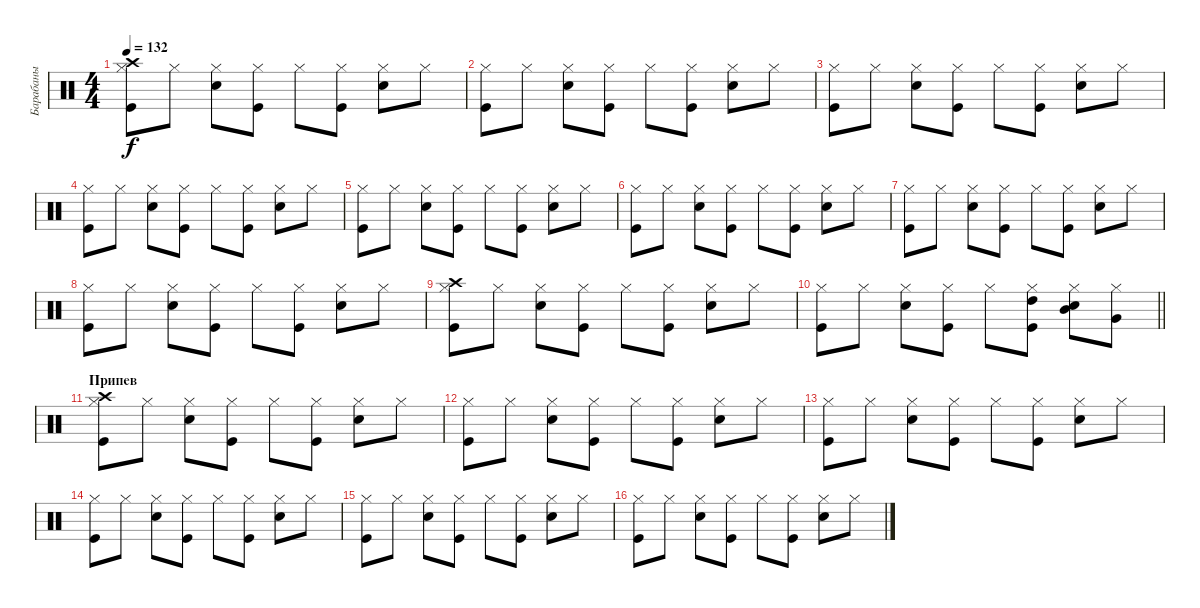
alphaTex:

\track ("Барабаны" "Барабаны") {instrument percussion}
\staff {score}
\articulation defaults
\ts (4 4)
\tempo 132
\clef neutral
\ks c
("Kick (hit)" "Hi-Hat (closed)" "Crash high (hit)").8{dy f} "Hi-Hat (closed)".8 ("Snare (hit) 2" "Hi-Hat (closed)").8 ("Kick (hit)" "Hi-Hat (closed)").8 "Hi-Hat (closed)".8 ("Kick (hit)" "Hi-Hat (closed)").8 ("Snare (hit) 2" "Hi-Hat (closed)").8 "Hi-Hat (closed)".8 |
("Kick (hit)" "Hi-Hat (closed)").8 "Hi-Hat (closed)".8 ("Snare (hit) 2" "Hi-Hat (closed)").8 ("Kick (hit)" "Hi-Hat (closed)").8 "Hi-Hat (closed)".8 ("Kick (hit)" "Hi-Hat (closed)").8 ("Snare (hit) 2" "Hi-Hat (closed)").8 "Hi-Hat (closed)".8 |
("Kick (hit)" "Hi-Hat (closed)").8 "Hi-Hat (closed)".8 ("Snare (hit) 2" "Hi-Hat (closed)").8 ("Kick (hit)" "Hi-Hat (closed)").8 "Hi-Hat (closed)".8 ("Kick (hit)" "Hi-Hat (closed)").8 ("Snare (hit) 2" "Hi-Hat (closed)").8 "Hi-Hat (closed)".8 |
("Kick (hit)" "Hi-Hat (closed)").8 "Hi-Hat (closed)".8 ("Snare (hit) 2" "Hi-Hat (closed)").8 ("Kick (hit)" "Hi-Hat (closed)").8 "Hi-Hat (closed)".8 ("Kick (hit)" "Hi-Hat (closed)").8 ("Snare (hit) 2" "Hi-Hat (closed)").8 "Hi-Hat (closed)".8 |
("Kick (hit)" "Hi-Hat (closed)").8 "Hi-Hat (closed)".8 ("Snare (hit) 2" "Hi-Hat (closed)").8 ("Kick (hit)" "Hi-Hat (closed)").8 "Hi-Hat (closed)".8 ("Kick (hit)" "Hi-Hat (closed)").8 ("Snare (hit) 2" "Hi-Hat (closed)").8 "Hi-Hat (closed)".8 |
("Kick (hit)" "Hi-Hat (closed)").8 "Hi-Hat (closed)".8 ("Snare (hit) 2" "Hi-Hat (closed)").8 ("Kick (hit)" "Hi-Hat (closed)").8 "Hi-Hat (closed)".8 ("Kick (hit)" "Hi-Hat (closed)").8 ("Snare (hit) 2" "Hi-Hat (closed)").8 "Hi-Hat (closed)".8 |
("Kick (hit)" "Hi-Hat (closed)").8 "Hi-Hat (closed)".8 ("Snare (hit) 2" "Hi-Hat (closed)").8 ("Kick (hit)" "Hi-Hat (closed)").8 "Hi-Hat (closed)".8 ("Kick (hit)" "Hi-Hat (closed)").8 ("Snare (hit) 2" "Hi-Hat (closed)").8 "Hi-Hat (closed)".8 |
("Kick (hit)" "Hi-Hat (closed)").8 "Hi-Hat (closed)".8 ("Snare (hit) 2" "Hi-Hat (closed)").8 ("Kick (hit)" "Hi-Hat (closed)").8 "Hi-Hat (closed)".8 ("Kick (hit)" "Hi-Hat (closed)").8 ("Snare (hit) 2" "Hi-Hat (closed)").8 "Hi-Hat (closed)".8 |
("Kick (hit)" "Hi-Hat (closed)" "Crash high (hit)").8 "Hi-Hat (closed)".8 ("Snare (hit) 2" "Hi-Hat (closed)").8 ("Kick (hit)" "Hi-Hat (closed)").8 "Hi-Hat (closed)".8 ("Kick (hit)" "Hi-Hat (closed)").8 ("Snare (hit) 2" "Hi-Hat (closed)").8 "Hi-Hat (closed)".8 |
\barLineRight lightlight
("Kick (hit)" "Hi-Hat (closed)").8 "Hi-Hat (closed)".8 ("Snare (hit) 2" "Hi-Hat (closed)").8 ("Kick (hit)" "Hi-Hat (closed)").8 "Hi-Hat (closed)".8 ("Kick (hit)" "Hi-Hat (closed)" "High Tom (hit)").8 ("Snare (hit) 2" "Hi-Hat (closed)" "Mid Tom (hit)").8 ("Hi-Hat (closed)" "Very Low Tom (hit)").8 |
\section ("" "Припев")
("Kick (hit)" "Hi-Hat (closed)" "Crash high (hit)").8 "Hi-Hat (closed)".8 ("Snare (hit) 2" "Hi-Hat (closed)").8 ("Kick (hit)" "Hi-Hat (closed)").8 "Hi-Hat (closed)".8 ("Kick (hit)" "Hi-Hat (closed)").8 ("Snare (hit) 2" "Hi-Hat (closed)").8 "Hi-Hat (closed)".8 |
("Kick (hit)" "Hi-Hat (closed)").8 "Hi-Hat (closed)".8 ("Snare (hit) 2" "Hi-Hat (closed)").8 ("Kick (hit)" "Hi-Hat (closed)").8 "Hi-Hat (closed)".8 ("Kick (hit)" "Hi-Hat (closed)").8 ("Snare (hit) 2" "Hi-Hat (closed)").8 "Hi-Hat (closed)".8 |
("Kick (hit)" "Hi-Hat (closed)").8 "Hi-Hat (closed)".8 ("Snare (hit) 2" "Hi-Hat (closed)").8 ("Kick (hit)" "Hi-Hat (closed)").8 "Hi-Hat (closed)".8 ("Kick (hit)" "Hi-Hat (closed)").8 ("Snare (hit) 2" "Hi-Hat (closed)").8 "Hi-Hat (closed)".8 |
("Kick (hit)" "Hi-Hat (closed)").8 "Hi-Hat (closed)".8 ("Snare (hit) 2" "Hi-Hat (closed)").8 ("Kick (hit)" "Hi-Hat (closed)").8 "Hi-Hat (closed)".8 ("Kick (hit)" "Hi-Hat (closed)").8 ("Snare (hit) 2" "Hi-Hat (closed)").8 "Hi-Hat (closed)".8 |
("Kick (hit)" "Hi-Hat (closed)").8 "Hi-Hat (closed)".8 ("Snare (hit) 2" "Hi-Hat (closed)").8 ("Kick (hit)" "Hi-Hat (closed)").8 "Hi-Hat (closed)".8 ("Kick (hit)" "Hi-Hat (closed)").8 ("Snare (hit) 2" "Hi-Hat (closed)").8 "Hi-Hat (closed)".8 |
("Kick (hit)" "Hi-Hat (closed)").8 "Hi-Hat (closed)".8 ("Snare (hit) 2" "Hi-Hat (closed)").8 ("Kick (hit)" "Hi-Hat (closed)").8 "Hi-Hat (closed)".8 ("Kick (hit)" "Hi-Hat (closed)").8 ("Snare (hit) 2" "Hi-Hat (closed)").8 "Hi-Hat (closed)".8
